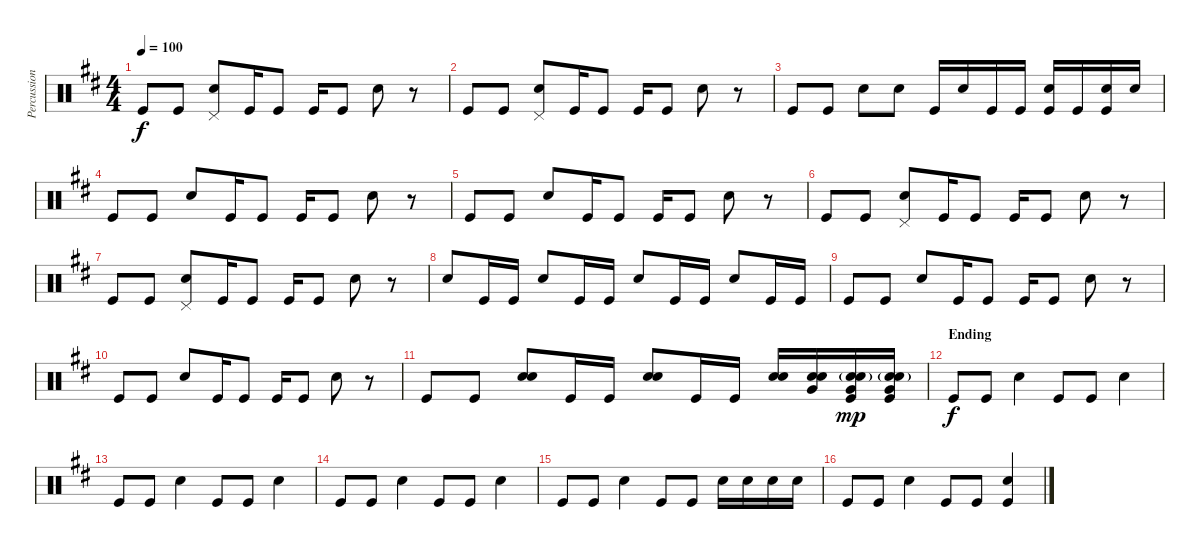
\track ("Percussion" "Percussion") {instrument percussion}
\staff {score}
\articulation defaults
\ts (4 4)
\tempo 100
\clef neutral
\ks d "Kick (hit)".8{dy f} "Kick (hit)".8
("Pedal Hi-Hat (hit)" "Electric Snare (hit)").8 "Kick (hit)".16 "Kick (hit)".8 "Kick (hit)".16 "Kick (hit)".8 "Electric Snare (hit)".8 r.8 |
"Kick (hit)".8 "Kick (hit)".8 ("Pedal Hi-Hat (hit)" "Electric Snare (hit)").8 "Kick (hit)".16 "Kick (hit)".8 "Kick (hit)".16 "Kick (hit)".8 "Electric Snare (hit)".8 r.8 |
"Kick (hit)".8 "Kick (hit)".8 "Electric Snare (hit)".8 "Electric Snare (hit)".8 "Kick (hit)".16 "Electric Snare (hit)".16 "Kick (hit)".16 "Kick (hit)".16 ("Electric Snare (hit)" "Kick (hit)").16 "Kick (hit)".16 ("Electric Snare (hit)" "Kick (hit)").16 "Electric Snare (hit)".16 |
"Kick (hit)".8 "Kick (hit)".8 "Electric Snare (hit)".8 "Kick (hit)".16 "Kick (hit)".8 "Kick (hit)".16 "Kick (hit)".8 "Electric Snare (hit)".8 r.8 |
"Kick (hit)".8 "Kick (hit)".8 "Electric Snare (hit)".8 "Kick (hit)".16 "Kick (hit)".8 "Kick (hit)".16 "Kick (hit)".8 "Electric Snare (hit)".8 r.8 |
"Kick (hit)".8 "Kick (hit)".8 ("Pedal Hi-Hat (hit)" "Electric Snare (hit)").8 "Kick (hit)".16 "Kick (hit)".8 "Kick (hit)".16 "Kick (hit)".8 "Electric Snare (hit)".8 r.8 |
"Kick (hit)".8 "Kick (hit)".8 ("Pedal Hi-Hat (hit)" "Electric Snare (hit)").8 "Kick (hit)".16 "Kick (hit)".8 "Kick (hit)".16 "Kick (hit)".8 "Electric Snare (hit)".8 r.8 |
"Electric Snare (hit)".8 "Kick (hit)".16 "Kick (hit)".16 "Electric Snare (hit)".8 "Kick (hit)".16 "Kick (hit)".16 "Electric Snare (hit)".8 "Kick (hit)".16 "Kick (hit)".16 "Electric Snare (hit)".8 "Kick (hit)".16 "Kick (hit)".16 |
"Kick (hit)".8 "Kick (hit)".8 "Electric Snare (hit)".8 "Kick (hit)".16 "Kick (hit)".8 "Kick (hit)".16 "Kick (hit)".8 "Electric Snare (hit)".8 r.8 |
"Kick (hit)".8 "Kick (hit)".8 "Electric Snare (hit)".8 "Kick (hit)".16 "Kick (hit)".8 "Kick (hit)".16 "Kick (hit)".8 "Electric Snare (hit)".8 r.8 |
"Kick (hit)".8 "Kick (hit)".8 ("Electric Snare (hit)" "Electric Snare (hit)").8 "Kick (hit)".16 "Kick (hit)".16 ("Electric Snare (hit)" "Electric Snare (hit)").8 "Kick (hit)".16 "Kick (hit)".16 ("Electric Snare (hit)" "Electric Snare (hit)").16 ("Electric Snare (hit)" "Electric Snare (hit)" "Very Low Tom (hit)").16 ("Electric Snare (hit)"{g} "Electric Snare (hit)" "Kick (hit)" "Very Low Tom (hit)").16{dy mp} ("Electric Snare (hit)"{g} "Electric Snare (hit)" "Kick (hit)" "Very Low Tom (hit)").16 |
\section ("" "Ending")
"Kick (hit)".8{dy f} "Kick (hit)".8 "Electric Snare (hit)".4 "Kick (hit)".8 "Kick (hit)".8 "Electric Snare (hit)".4 |
"Kick (hit)".8 "Kick (hit)".8 "Electric Snare (hit)".4 "Kick (hit)".8 "Kick (hit)".8 "Electric Snare (hit)".4 |
"Kick (hit)".8 "Kick (hit)".8 "Electric Snare (hit)".4 "Kick (hit)".8 "Kick (hit)".8 "Electric Snare (hit)".4 |
"Kick (hit)".8 "Kick (hit)".8 "Electric Snare (hit)".4 "Kick (hit)".8 "Kick (hit)".8 "Electric Snare (hit)".16 "Electric Snare (hit)".16 "Electric Snare (hit)".16 "Electric Snare (hit)".16 |
"Kick (hit)".8 "Kick (hit)".8 "Electric Snare (hit)".4 "Kick (hit)".8 "Kick (hit)".8 ("Electric Snare (hit)" "Kick (hit)").4
